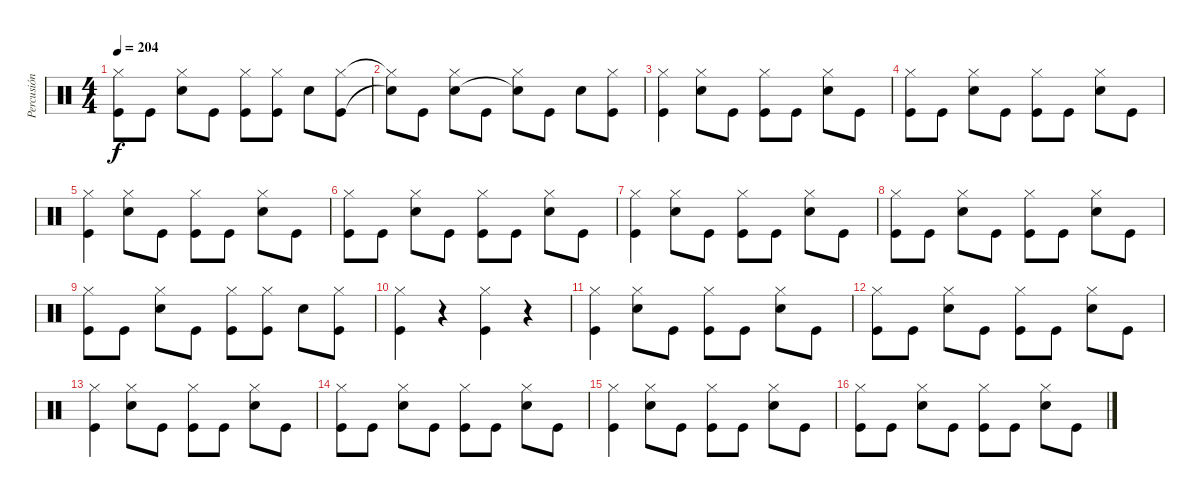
\track ("Percusión" "Percusión") {instrument percussion}
\staff {score}
\articulation defaults
\ts (4 4)
\tempo 204
\clef neutral
\ks c
("Hi-Hat (closed)" "Kick (hit)").8{dy f} "Kick (hit)".8 ("Hi-Hat (closed)" "Snare (hit) 2").8 "Kick (hit)".8 ("Hi-Hat (closed)" "Kick (hit)").8 ("Hi-Hat (closed)" "Kick (hit)").8 "Snare (hit) 2".8 ("Hi-Hat (closed)" "Kick (hit)").8 |
("Hi-Hat (closed)"{t} "Snare (hit)"{t}).8 "Kick (hit)".8 ("Hi-Hat (closed)" "Snare (hit) 2").8 "Kick (hit)".8 ("Hi-Hat (closed)" "Snare (hit)"{t}).8 "Kick (hit)".8 "Snare (hit) 2".8 ("Hi-Hat (closed)" "Kick (hit)").8 |
("Hi-Hat (closed)" "Kick (hit)").4 ("Hi-Hat (closed)" "Snare (hit) 2").8 "Kick (hit)".8 ("Hi-Hat (closed)" "Kick (hit)").8 "Kick (hit)".8 ("Hi-Hat (closed)" "Snare (hit) 2").8 "Kick (hit)".8 |
("Hi-Hat (closed)" "Kick (hit)").8 "Kick (hit)".8 ("Hi-Hat (closed)" "Snare (hit) 2").8 "Kick (hit)".8 ("Hi-Hat (closed)" "Kick (hit)").8 "Kick (hit)".8 ("Hi-Hat (closed)" "Snare (hit) 2").8 "Kick (hit)".8 |
("Hi-Hat (closed)" "Kick (hit)").4 ("Hi-Hat (closed)" "Snare (hit) 2").8 "Kick (hit)".8 ("Hi-Hat (closed)" "Kick (hit)").8 "Kick (hit)".8 ("Hi-Hat (closed)" "Snare (hit) 2").8 "Kick (hit)".8 |
("Hi-Hat (closed)" "Kick (hit)").8 "Kick (hit)".8 ("Hi-Hat (closed)" "Snare (hit) 2").8 "Kick (hit)".8 ("Hi-Hat (closed)" "Kick (hit)").8 "Kick (hit)".8 ("Hi-Hat (closed)" "Snare (hit) 2").8 "Kick (hit)".8 |
("Hi-Hat (closed)" "Kick (hit)").4 ("Hi-Hat (closed)" "Snare (hit) 2").8 "Kick (hit)".8 ("Hi-Hat (closed)" "Kick (hit)").8 "Kick (hit)".8 ("Hi-Hat (closed)" "Snare (hit) 2").8 "Kick (hit)".8 |
("Hi-Hat (closed)" "Kick (hit)").8 "Kick (hit)".8 ("Hi-Hat (closed)" "Snare (hit) 2").8 "Kick (hit)".8 ("Hi-Hat (closed)" "Kick (hit)").8 "Kick (hit)".8 ("Hi-Hat (closed)" "Snare (hit) 2").8 "Kick (hit)".8 |
("Hi-Hat (closed)" "Kick (hit)").8 "Kick (hit)".8 ("Hi-Hat (closed)" "Snare (hit) 2").8 "Kick (hit)".8 ("Hi-Hat (closed)" "Kick (hit)").8 ("Hi-Hat (closed)" "Kick (hit)").8 "Snare (hit) 2".8 ("Hi-Hat (closed)" "Kick (hit)").8 |
("Hi-Hat (closed)" "Kick (hit)").4 r.4 ("Hi-Hat (closed)" "Kick (hit)").4 r.4 |
("Hi-Hat (closed)" "Kick (hit)").4 ("Hi-Hat (closed)" "Snare (hit) 2").8 "Kick (hit)".8 ("Hi-Hat (closed)" "Kick (hit)").8 "Kick (hit)".8 ("Hi-Hat (closed)" "Snare (hit) 2").8 "Kick (hit)".8 |
("Hi-Hat (closed)" "Kick (hit)").8 "Kick (hit)".8 ("Hi-Hat (closed)" "Snare (hit) 2").8 "Kick (hit)".8 ("Hi-Hat (closed)" "Kick (hit)").8 "Kick (hit)".8 ("Hi-Hat (closed)" "Snare (hit) 2").8 "Kick (hit)".8 |
("Hi-Hat (closed)" "Kick (hit)").4 ("Hi-Hat (closed)" "Snare (hit) 2").8 "Kick (hit)".8 ("Hi-Hat (closed)" "Kick (hit)").8 "Kick (hit)".8 ("Hi-Hat (closed)" "Snare (hit) 2").8 "Kick (hit)".8 |
("Hi-Hat (closed)" "Kick (hit)").8 "Kick (hit)".8 ("Hi-Hat (closed)" "Snare (hit) 2").8 "Kick (hit)".8 ("Hi-Hat (closed)" "Kick (hit)").8 "Kick (hit)".8 ("Hi-Hat (closed)" "Snare (hit) 2").8 "Kick (hit)".8 |
("Hi-Hat (closed)" "Kick (hit)").4 ("Hi-Hat (closed)" "Snare (hit) 2").8 "Kick (hit)".8 ("Hi-Hat (closed)" "Kick (hit)").8 "Kick (hit)".8 ("Hi-Hat (closed)" "Snare (hit) 2").8 "Kick (hit)".8 |
("Hi-Hat (closed)" "Kick (hit)").8 "Kick (hit)".8 ("Hi-Hat (closed)" "Snare (hit) 2").8 "Kick (hit)".8 ("Hi-Hat (closed)" "Kick (hit)").8 "Kick (hit)".8 ("Hi-Hat (closed)" "Snare (hit) 2").8 "Kick (hit)".8
